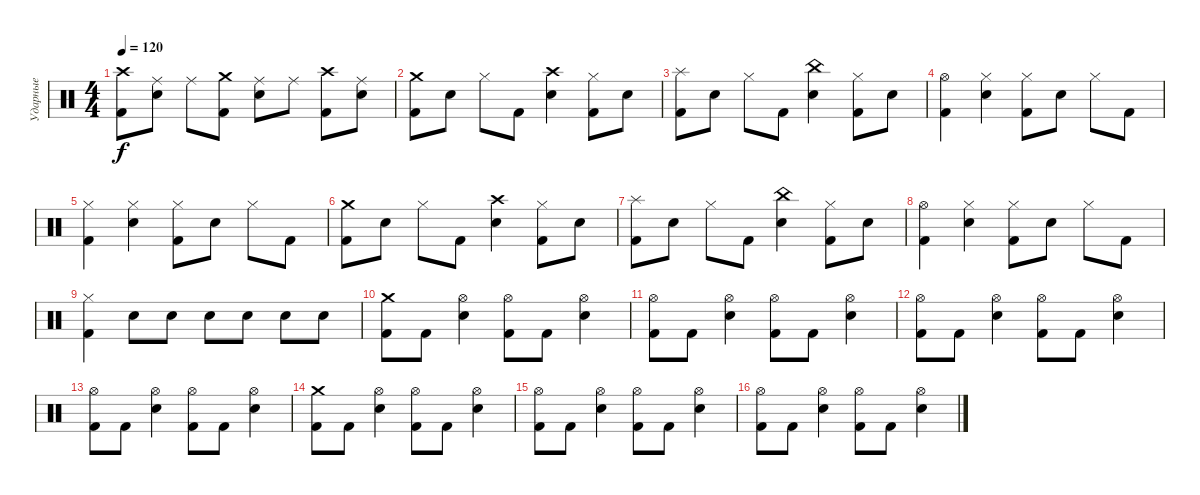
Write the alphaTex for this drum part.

\track ("Ударные" "Ударные") {instrument percussion}
\staff {score}
\articulation defaults
\ts (4 4)
\tempo 120
\clef neutral
\ks c
("Crash high (hit)" "Kick (hit) 2").8{dy f} ("Ride (middle)" "Electric Snare (hit)").8 "Ride (middle)".8 ("Crash medium (hit)" "Kick (hit) 2").8 ("Ride (middle)" "Electric Snare (hit)").8 "Ride (middle)".8 ("Crash high (hit)" "Kick (hit) 2").8 ("Ride (middle)" "Electric Snare (hit)").8 |
("Crash medium (hit)" "Kick (hit) 2").8 "Electric Snare (hit)".8 "Hi-Hat (closed)".8 "Kick (hit) 2".8 ("Crash high (hit)" "Electric Snare (hit)").4 ("Hi-Hat (closed)" "Kick (hit) 2").8 "Electric Snare (hit)".8 |
("Splash (hit)" "Kick (hit) 2").8 "Electric Snare (hit)".8 "Hi-Hat (closed)".8 "Kick (hit) 2".8 ("China (hit)" "Electric Snare (hit)").4 ("Hi-Hat (closed)" "Kick (hit) 2").8 "Electric Snare (hit)".8 |
("Hi-Hat (open)" "Kick (hit) 2").4 ("Hi-Hat (closed)" "Electric Snare (hit)").4 ("Hi-Hat (closed)" "Kick (hit) 2").8 "Electric Snare (hit)".8 "Hi-Hat (closed)".8 "Kick (hit) 2".8 |
("Hi-Hat (closed)" "Kick (hit) 2").4 ("Hi-Hat (closed)" "Electric Snare (hit)").4 ("Hi-Hat (closed)" "Kick (hit) 2").8 "Electric Snare (hit)".8 "Hi-Hat (closed)".8 "Kick (hit) 2".8 |
("Crash medium (hit)" "Kick (hit) 2").8 "Electric Snare (hit)".8 "Hi-Hat (closed)".8 "Kick (hit) 2".8 ("Crash high (hit)" "Electric Snare (hit)").4 ("Hi-Hat (closed)" "Kick (hit) 2").8 "Electric Snare (hit)".8 |
("Splash (hit)" "Kick (hit) 2").8 "Electric Snare (hit)".8 "Hi-Hat (closed)".8 "Kick (hit) 2".8 ("China (hit)" "Electric Snare (hit)").4 ("Hi-Hat (closed)" "Kick (hit) 2").8 "Electric Snare (hit)".8 |
("Hi-Hat (open)" "Kick (hit) 2").4 ("Hi-Hat (closed)" "Electric Snare (hit)").4 ("Hi-Hat (closed)" "Kick (hit) 2").8 "Electric Snare (hit)".8 "Hi-Hat (closed)".8 "Kick (hit) 2".8 |
("Hi-Hat (closed)" "Kick (hit) 2").4 "Electric Snare (hit)".8 "Electric Snare (hit)".8 "Electric Snare (hit)".8 "Electric Snare (hit)".8 "Electric Snare (hit)".8 "Electric Snare (hit)".8 |
("Crash medium (hit)" "Kick (hit) 2").8 "Kick (hit) 2".8 ("Hi-Hat (open)" "Electric Snare (hit)").4 ("Hi-Hat (open)" "Kick (hit) 2").8 "Kick (hit) 2".8 ("Hi-Hat (open)" "Electric Snare (hit)").4 |
("Hi-Hat (open)" "Kick (hit) 2").8 "Kick (hit) 2".8 ("Hi-Hat (open)" "Electric Snare (hit)").4 ("Hi-Hat (open)" "Kick (hit) 2").8 "Kick (hit) 2".8 ("Hi-Hat (open)" "Electric Snare (hit)").4 |
("Hi-Hat (open)" "Kick (hit) 2").8 "Kick (hit) 2".8 ("Hi-Hat (open)" "Electric Snare (hit)").4 ("Hi-Hat (open)" "Kick (hit) 2").8 "Kick (hit) 2".8 ("Hi-Hat (open)" "Electric Snare (hit)").4 |
("Hi-Hat (open)" "Kick (hit) 2").8 "Kick (hit) 2".8 ("Hi-Hat (open)" "Electric Snare (hit)").4 ("Hi-Hat (open)" "Kick (hit) 2").8 "Kick (hit) 2".8 ("Hi-Hat (open)" "Electric Snare (hit)").4 |
("Crash medium (hit)" "Kick (hit) 2").8 "Kick (hit) 2".8 ("Hi-Hat (open)" "Electric Snare (hit)").4 ("Hi-Hat (open)" "Kick (hit) 2").8 "Kick (hit) 2".8 ("Hi-Hat (open)" "Electric Snare (hit)").4 |
("Hi-Hat (open)" "Kick (hit) 2").8 "Kick (hit) 2".8 ("Hi-Hat (open)" "Electric Snare (hit)").4 ("Hi-Hat (open)" "Kick (hit) 2").8 "Kick (hit) 2".8 ("Hi-Hat (open)" "Electric Snare (hit)").4 |
("Hi-Hat (open)" "Kick (hit) 2").8 "Kick (hit) 2".8 ("Hi-Hat (open)" "Electric Snare (hit)").4 ("Hi-Hat (open)" "Kick (hit) 2").8 "Kick (hit) 2".8 ("Hi-Hat (open)" "Electric Snare (hit)").4
